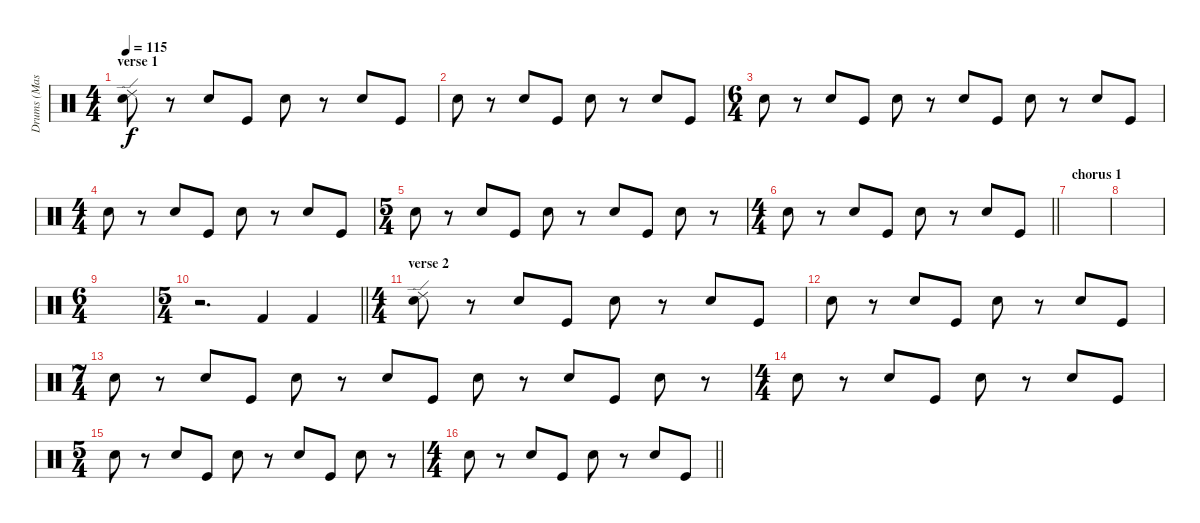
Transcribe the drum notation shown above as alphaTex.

\track ("Drums (Mason)" "Drums (Mas") {instrument percussion}
\staff {score}
\articulation defaults
\ts (4 4)
\section ("" "verse 1")
\tempo 115
\clef neutral
\ks c
("Ride (edge) 2" "Snare (hit) 2").8{dy f} r.8 "Snare (hit) 2".8 "Kick (hit)".8 "Snare (hit) 2".8 r.8 "Snare (hit) 2".8 "Kick (hit)".8 |
"Snare (hit) 2".8 r.8 "Snare (hit) 2".8 "Kick (hit)".8 "Snare (hit) 2".8 r.8 "Snare (hit) 2".8 "Kick (hit)".8 |
\ts (6 4)
"Snare (hit) 2".8 r.8 "Snare (hit) 2".8 "Kick (hit)".8 "Snare (hit) 2".8 r.8 "Snare (hit) 2".8 "Kick (hit)".8 "Snare (hit) 2".8 r.8 "Snare (hit) 2".8 "Kick (hit)".8 |
\ts (4 4)
"Snare (hit) 2".8 r.8 "Snare (hit) 2".8 "Kick (hit)".8 "Snare (hit) 2".8 r.8 "Snare (hit) 2".8 "Kick (hit)".8 |
\ts (5 4)
"Snare (hit) 2".8 r.8 "Snare (hit) 2".8 "Kick (hit)".8 "Snare (hit) 2".8 r.8 "Snare (hit) 2".8 "Kick (hit)".8 "Snare (hit) 2".8 r.8 |
\ts (4 4)
\barLineRight lightlight "Snare (hit) 2".8
r.8 "Snare (hit) 2".8 "Kick (hit)".8 "Snare (hit) 2".8 r.8 "Snare (hit) 2".8 "Kick (hit)".8 |
\section ("" "chorus 1")
|
|
\ts (6 4)
|
\ts (5 4)
\barLineRight lightlight
r.2{d} "Kick (hit) 2".4 "Kick (hit) 2".4 |
\ts (4 4)
\section ("" "verse 2")
("Ride (edge) 2" "Snare (hit) 2").8 r.8 "Snare (hit) 2".8 "Kick (hit)".8 "Snare (hit) 2".8 r.8 "Snare (hit) 2".8 "Kick (hit)".8 |
"Snare (hit) 2".8 r.8 "Snare (hit) 2".8 "Kick (hit)".8 "Snare (hit) 2".8 r.8 "Snare (hit) 2".8 "Kick (hit)".8 |
\ts (7 4)
"Snare (hit) 2".8 r.8 "Snare (hit) 2".8 "Kick (hit)".8 "Snare (hit) 2".8 r.8 "Snare (hit) 2".8 "Kick (hit)".8 "Snare (hit) 2".8 r.8 "Snare (hit) 2".8 "Kick (hit)".8 "Snare (hit) 2".8 r.8 |
\ts (4 4)
"Snare (hit) 2".8 r.8 "Snare (hit) 2".8 "Kick (hit)".8 "Snare (hit) 2".8 r.8 "Snare (hit) 2".8 "Kick (hit)".8 |
\ts (5 4)
"Snare (hit) 2".8 r.8 "Snare (hit) 2".8 "Kick (hit)".8 "Snare (hit) 2".8 r.8 "Snare (hit) 2".8 "Kick (hit)".8 "Snare (hit) 2".8 r.8 |
\ts (4 4)
\barLineRight lightlight "Snare (hit) 2".8
r.8 "Snare (hit) 2".8 "Kick (hit)".8 "Snare (hit) 2".8 r.8 "Snare (hit) 2".8 "Kick (hit)".8
